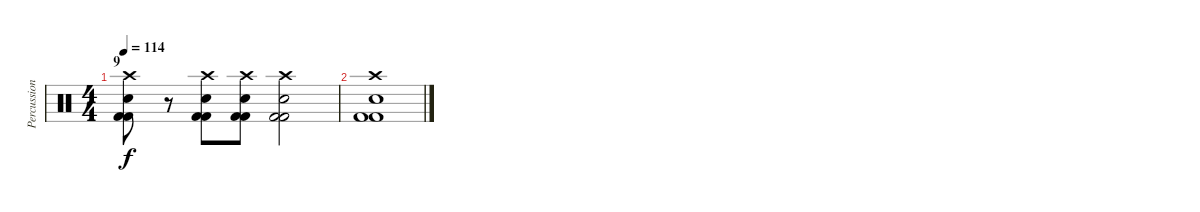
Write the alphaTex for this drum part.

\track ("Percussions" "Percussion") {instrument percussion}
\staff {score}
\articulation defaults
\ts (4 4)
\section ("" "9")
\tempo 114
\clef neutral
\ks c
("Crash high (hit)" "Snare (hit) 2" "Kick (hit) 2" "Kick (hit) 2").8{dy f} r.8 ("Crash high (hit)" "Snare (hit) 2" "Kick (hit) 2" "Kick (hit) 2").8 ("Crash high (hit)" "Snare (hit) 2" "Kick (hit) 2" "Kick (hit) 2").8 ("Crash high (hit)" "Snare (hit) 2" "Kick (hit) 2" "Kick (hit) 2").2 |
("Crash high (hit)" "Snare (hit) 2" "Kick (hit) 2" "Kick (hit) 2").1
